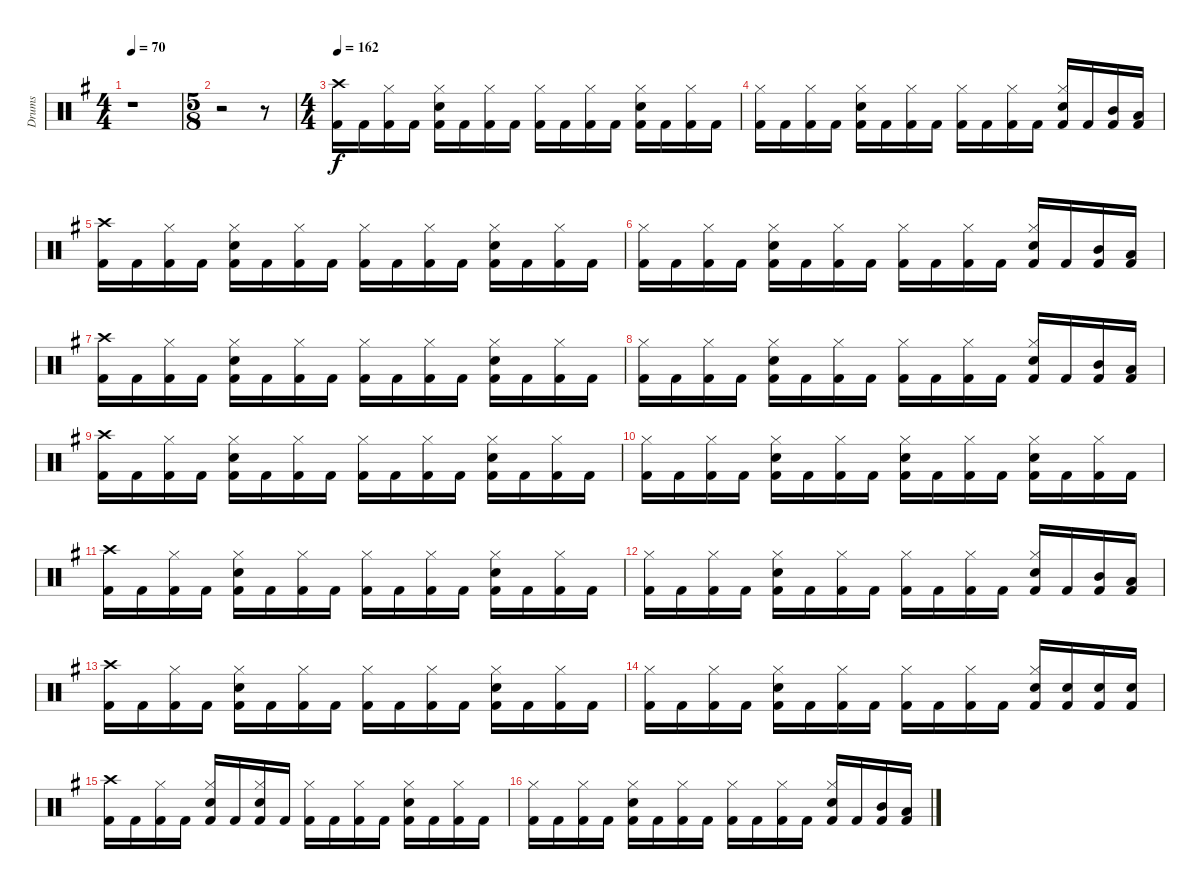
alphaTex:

\track ("Drums" "Drums") {instrument percussion}
\staff {score}
\articulation defaults
\ts (4 4)
\tempo 70
\clef neutral
\ks g
r.1{dy f} |
\ts (5 8)
r.2 r.8 |
\ts (4 4)
\tempo 162
("Crash high (hit)" "Kick (hit) 2").16 "Kick (hit) 2".16 ("Hi-Hat (closed)" "Kick (hit) 2").16 "Kick (hit) 2".16 ("Hi-Hat (closed)" "Electric Snare (hit)" "Kick (hit) 2").16 "Kick (hit) 2".16 ("Hi-Hat (closed)" "Kick (hit) 2").16 "Kick (hit) 2".16 ("Hi-Hat (closed)" "Kick (hit) 2").16 "Kick (hit) 2".16 ("Hi-Hat (closed)" "Kick (hit) 2").16 "Kick (hit) 2".16 ("Hi-Hat (closed)" "Electric Snare (hit)" "Kick (hit) 2").16 "Kick (hit) 2".16 ("Hi-Hat (closed)" "Kick (hit) 2").16 "Kick (hit) 2".16 |
("Hi-Hat (closed)" "Kick (hit) 2").16 "Kick (hit) 2".16 ("Hi-Hat (closed)" "Kick (hit) 2").16 "Kick (hit) 2".16 ("Hi-Hat (closed)" "Electric Snare (hit)" "Kick (hit) 2").16 "Kick (hit) 2".16 ("Hi-Hat (closed)" "Kick (hit) 2").16 "Kick (hit) 2".16 ("Hi-Hat (closed)" "Kick (hit) 2").16 "Kick (hit) 2".16 ("Hi-Hat (closed)" "Kick (hit) 2").16 "Kick (hit) 2".16 ("Hi-Hat (closed)" "Electric Snare (hit)" "Kick (hit) 2").16 "Kick (hit) 2".16 ("Mid Tom (hit)" "Kick (hit) 2").16 ("Low Tom (hit)" "Kick (hit) 2").16 |
("Crash high (hit)" "Kick (hit) 2").16 "Kick (hit) 2".16 ("Hi-Hat (closed)" "Kick (hit) 2").16 "Kick (hit) 2".16 ("Hi-Hat (closed)" "Electric Snare (hit)" "Kick (hit) 2").16 "Kick (hit) 2".16 ("Hi-Hat (closed)" "Kick (hit) 2").16 "Kick (hit) 2".16 ("Hi-Hat (closed)" "Kick (hit) 2").16 "Kick (hit) 2".16 ("Hi-Hat (closed)" "Kick (hit) 2").16 "Kick (hit) 2".16 ("Hi-Hat (closed)" "Electric Snare (hit)" "Kick (hit) 2").16 "Kick (hit) 2".16 ("Hi-Hat (closed)" "Kick (hit) 2").16 "Kick (hit) 2".16 |
("Hi-Hat (closed)" "Kick (hit) 2").16 "Kick (hit) 2".16 ("Hi-Hat (closed)" "Kick (hit) 2").16 "Kick (hit) 2".16 ("Hi-Hat (closed)" "Electric Snare (hit)" "Kick (hit) 2").16 "Kick (hit) 2".16 ("Hi-Hat (closed)" "Kick (hit) 2").16 "Kick (hit) 2".16 ("Hi-Hat (closed)" "Kick (hit) 2").16 "Kick (hit) 2".16 ("Hi-Hat (closed)" "Kick (hit) 2").16 "Kick (hit) 2".16 ("Hi-Hat (closed)" "Electric Snare (hit)" "Kick (hit) 2").16 "Kick (hit) 2".16 ("Mid Tom (hit)" "Kick (hit) 2").16 ("Low Tom (hit)" "Kick (hit) 2").16 |
("Crash high (hit)" "Kick (hit) 2").16 "Kick (hit) 2".16 ("Hi-Hat (closed)" "Kick (hit) 2").16 "Kick (hit) 2".16 ("Hi-Hat (closed)" "Electric Snare (hit)" "Kick (hit) 2").16 "Kick (hit) 2".16 ("Hi-Hat (closed)" "Kick (hit) 2").16 "Kick (hit) 2".16 ("Hi-Hat (closed)" "Kick (hit) 2").16 "Kick (hit) 2".16 ("Hi-Hat (closed)" "Kick (hit) 2").16 "Kick (hit) 2".16 ("Hi-Hat (closed)" "Electric Snare (hit)" "Kick (hit) 2").16 "Kick (hit) 2".16 ("Hi-Hat (closed)" "Kick (hit) 2").16 "Kick (hit) 2".16 |
("Hi-Hat (closed)" "Kick (hit) 2").16 "Kick (hit) 2".16 ("Hi-Hat (closed)" "Kick (hit) 2").16 "Kick (hit) 2".16 ("Hi-Hat (closed)" "Electric Snare (hit)" "Kick (hit) 2").16 "Kick (hit) 2".16 ("Hi-Hat (closed)" "Kick (hit) 2").16 "Kick (hit) 2".16 ("Hi-Hat (closed)" "Kick (hit) 2").16 "Kick (hit) 2".16 ("Hi-Hat (closed)" "Kick (hit) 2").16 "Kick (hit) 2".16 ("Hi-Hat (closed)" "Electric Snare (hit)" "Kick (hit) 2").16 "Kick (hit) 2".16 ("Mid Tom (hit)" "Kick (hit) 2").16 ("Low Tom (hit)" "Kick (hit) 2").16 |
("Crash high (hit)" "Kick (hit) 2").16 "Kick (hit) 2".16 ("Hi-Hat (closed)" "Kick (hit) 2").16 "Kick (hit) 2".16 ("Hi-Hat (closed)" "Electric Snare (hit)" "Kick (hit) 2").16 "Kick (hit) 2".16 ("Hi-Hat (closed)" "Kick (hit) 2").16 "Kick (hit) 2".16 ("Hi-Hat (closed)" "Kick (hit) 2").16 "Kick (hit) 2".16 ("Hi-Hat (closed)" "Kick (hit) 2").16 "Kick (hit) 2".16 ("Hi-Hat (closed)" "Electric Snare (hit)" "Kick (hit) 2").16 "Kick (hit) 2".16 ("Hi-Hat (closed)" "Kick (hit) 2").16 "Kick (hit) 2".16 |
("Hi-Hat (closed)" "Kick (hit) 2").16 "Kick (hit) 2".16 ("Hi-Hat (closed)" "Kick (hit) 2").16 "Kick (hit) 2".16 ("Hi-Hat (closed)" "Electric Snare (hit)" "Kick (hit) 2").16 "Kick (hit) 2".16 ("Hi-Hat (closed)" "Kick (hit) 2").16 "Kick (hit) 2".16 ("Hi-Hat (closed)" "Electric Snare (hit)" "Kick (hit) 2").16 "Kick (hit) 2".16 ("Hi-Hat (closed)" "Kick (hit) 2").16 "Kick (hit) 2".16 ("Hi-Hat (closed)" "Electric Snare (hit)" "Kick (hit) 2").16 "Kick (hit) 2".16 ("Hi-Hat (closed)" "Kick (hit) 2").16 "Kick (hit) 2".16 |
("Crash high (hit)" "Kick (hit) 2").16 "Kick (hit) 2".16 ("Hi-Hat (closed)" "Kick (hit) 2").16 "Kick (hit) 2".16 ("Hi-Hat (closed)" "Electric Snare (hit)" "Kick (hit) 2").16 "Kick (hit) 2".16 ("Hi-Hat (closed)" "Kick (hit) 2").16 "Kick (hit) 2".16 ("Hi-Hat (closed)" "Kick (hit) 2").16 "Kick (hit) 2".16 ("Hi-Hat (closed)" "Kick (hit) 2").16 "Kick (hit) 2".16 ("Hi-Hat (closed)" "Electric Snare (hit)" "Kick (hit) 2").16 "Kick (hit) 2".16 ("Hi-Hat (closed)" "Kick (hit) 2").16 "Kick (hit) 2".16 |
("Hi-Hat (closed)" "Kick (hit) 2").16 "Kick (hit) 2".16 ("Hi-Hat (closed)" "Kick (hit) 2").16 "Kick (hit) 2".16 ("Hi-Hat (closed)" "Electric Snare (hit)" "Kick (hit) 2").16 "Kick (hit) 2".16 ("Hi-Hat (closed)" "Kick (hit) 2").16 "Kick (hit) 2".16 ("Hi-Hat (closed)" "Kick (hit) 2").16 "Kick (hit) 2".16 ("Hi-Hat (closed)" "Kick (hit) 2").16 "Kick (hit) 2".16 ("Hi-Hat (closed)" "Electric Snare (hit)" "Kick (hit) 2").16 "Kick (hit) 2".16 ("Mid Tom (hit)" "Kick (hit) 2").16 ("Low Tom (hit)" "Kick (hit) 2").16 |
("Crash high (hit)" "Kick (hit) 2").16 "Kick (hit) 2".16 ("Hi-Hat (closed)" "Kick (hit) 2").16 "Kick (hit) 2".16 ("Hi-Hat (closed)" "Electric Snare (hit)" "Kick (hit) 2").16 "Kick (hit) 2".16 ("Hi-Hat (closed)" "Kick (hit) 2").16 "Kick (hit) 2".16 ("Hi-Hat (closed)" "Kick (hit) 2").16 "Kick (hit) 2".16 ("Hi-Hat (closed)" "Kick (hit) 2").16 "Kick (hit) 2".16 ("Hi-Hat (closed)" "Electric Snare (hit)" "Kick (hit) 2").16 "Kick (hit) 2".16 ("Hi-Hat (closed)" "Kick (hit) 2").16 "Kick (hit) 2".16 |
("Hi-Hat (closed)" "Kick (hit) 2").16 "Kick (hit) 2".16 ("Hi-Hat (closed)" "Kick (hit) 2").16 "Kick (hit) 2".16 ("Hi-Hat (closed)" "Electric Snare (hit)" "Kick (hit) 2").16 "Kick (hit) 2".16 ("Hi-Hat (closed)" "Kick (hit) 2").16 "Kick (hit) 2".16 ("Hi-Hat (closed)" "Kick (hit) 2").16 "Kick (hit) 2".16 ("Hi-Hat (closed)" "Kick (hit) 2").16 "Kick (hit) 2".16 ("Hi-Hat (closed)" "Electric Snare (hit)" "Kick (hit) 2").16 ("Electric Snare (hit)" "Kick (hit) 2").16 ("Electric Snare (hit)" "Kick (hit) 2").16 ("Electric Snare (hit)" "Kick (hit) 2").16 |
("Crash high (hit)" "Kick (hit) 2").16 "Kick (hit) 2".16 ("Hi-Hat (closed)" "Kick (hit) 2").16 "Kick (hit) 2".16 ("Hi-Hat (closed)" "Electric Snare (hit)" "Kick (hit) 2").16 "Kick (hit) 2".16 ("Hi-Hat (closed)" "Electric Snare (hit)" "Kick (hit) 2").16 "Kick (hit) 2".16 ("Hi-Hat (closed)" "Kick (hit) 2").16 "Kick (hit) 2".16 ("Hi-Hat (closed)" "Kick (hit) 2").16 "Kick (hit) 2".16 ("Hi-Hat (closed)" "Electric Snare (hit)" "Kick (hit) 2").16 "Kick (hit) 2".16 ("Hi-Hat (closed)" "Kick (hit) 2").16 "Kick (hit) 2".16 |
("Hi-Hat (closed)" "Kick (hit) 2").16 "Kick (hit) 2".16 ("Hi-Hat (closed)" "Kick (hit) 2").16 "Kick (hit) 2".16 ("Hi-Hat (closed)" "Electric Snare (hit)" "Kick (hit) 2").16 "Kick (hit) 2".16 ("Hi-Hat (closed)" "Kick (hit) 2").16 "Kick (hit) 2".16 ("Hi-Hat (closed)" "Kick (hit) 2").16 "Kick (hit) 2".16 ("Hi-Hat (closed)" "Kick (hit) 2").16 "Kick (hit) 2".16 ("Hi-Hat (closed)" "Electric Snare (hit)" "Kick (hit) 2").16 "Kick (hit) 2".16 ("Mid Tom (hit)" "Kick (hit) 2").16 ("Low Tom (hit)" "Kick (hit) 2").16
